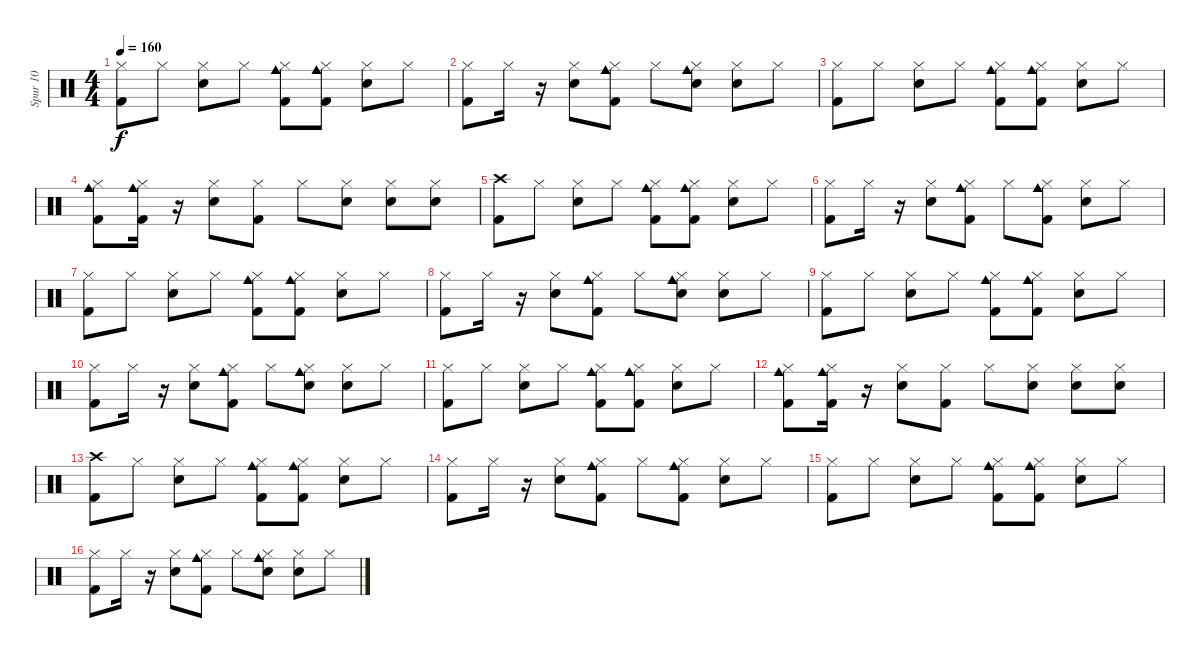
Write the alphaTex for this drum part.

\track ("Spur 10" "Spur 10") {instrument percussion}
\staff {score}
\articulation defaults
\ts (4 4)
\tempo 160
\clef neutral
\ks c
("Hi-Hat (closed)" "Kick (hit) 2").8{dy f} "Hi-Hat (closed)".8 ("Hi-Hat (closed)" "Snare (hit) 2").8 "Hi-Hat (closed)".8 ("Hi-Hat (closed)" "Cowbell medium (hit)" "Kick (hit) 2").8 ("Hi-Hat (closed)" "Cowbell medium (hit)" "Kick (hit) 2").8 ("Hi-Hat (closed)" "Snare (hit) 2").8 "Hi-Hat (closed)".8 |
("Hi-Hat (closed)" "Kick (hit) 2").8 "Hi-Hat (closed)".16 r.16 ("Hi-Hat (closed)" "Snare (hit) 2").8 ("Hi-Hat (closed)" "Kick (hit) 2" "Cowbell medium (hit)").8 "Hi-Hat (closed)".8 ("Hi-Hat (closed)" "Hand Clap (hit)" "Cowbell medium (hit)").8 ("Hi-Hat (closed)" "Snare (hit) 2").8 "Hi-Hat (closed)".8 |
("Hi-Hat (closed)" "Kick (hit) 2").8 "Hi-Hat (closed)".8 ("Hi-Hat (closed)" "Snare (hit) 2").8 "Hi-Hat (closed)".8 ("Hi-Hat (closed)" "Cowbell medium (hit)" "Kick (hit) 2").8 ("Hi-Hat (closed)" "Cowbell medium (hit)" "Kick (hit) 2").8 ("Hi-Hat (closed)" "Snare (hit) 2").8 "Hi-Hat (closed)".8 |
("Cowbell medium (hit)" "Hi-Hat (closed)" "Kick (hit) 2").8 ("Cowbell medium (hit)" "Kick (hit) 2" "Hi-Hat (closed)").16 r.16 ("Hi-Hat (closed)" "Snare (hit) 2").8 ("Hi-Hat (closed)" "Kick (hit) 2").8 "Hi-Hat (closed)".8 ("Hi-Hat (closed)" "Snare (hit) 2").8 ("Hi-Hat (closed)" "Snare (hit) 2").8 ("Snare (hit) 2" "Hi-Hat (closed)").8 |
("Crash high (hit)" "Kick (hit) 2").8 "Hi-Hat (closed)".8 ("Hi-Hat (closed)" "Snare (hit) 2").8 "Hi-Hat (closed)".8 ("Hi-Hat (closed)" "Cowbell medium (hit)" "Kick (hit) 2").8 ("Hi-Hat (closed)" "Cowbell medium (hit)" "Kick (hit) 2").8 ("Hi-Hat (closed)" "Snare (hit) 2").8 "Hi-Hat (closed)".8 |
("Hi-Hat (closed)" "Kick (hit) 2").8 "Hi-Hat (closed)".16 r.16 ("Hi-Hat (closed)" "Snare (hit) 2").8 ("Hi-Hat (closed)" "Kick (hit) 2" "Cowbell medium (hit)").8 "Hi-Hat (closed)".8 ("Hi-Hat (closed)" "Kick (hit) 2" "Cowbell medium (hit)").8 ("Hi-Hat (closed)" "Snare (hit) 2").8 "Hi-Hat (closed)".8 |
("Hi-Hat (closed)" "Kick (hit) 2").8 "Hi-Hat (closed)".8 ("Hi-Hat (closed)" "Snare (hit) 2").8 "Hi-Hat (closed)".8 ("Hi-Hat (closed)" "Cowbell medium (hit)" "Kick (hit) 2").8 ("Hi-Hat (closed)" "Cowbell medium (hit)" "Kick (hit) 2").8 ("Hi-Hat (closed)" "Snare (hit) 2").8 "Hi-Hat (closed)".8 |
("Hi-Hat (closed)" "Kick (hit) 2").8 "Hi-Hat (closed)".16 r.16 ("Hi-Hat (closed)" "Snare (hit) 2").8 ("Hi-Hat (closed)" "Kick (hit) 2" "Cowbell medium (hit)").8 "Hi-Hat (closed)".8 ("Hi-Hat (closed)" "Hand Clap (hit)" "Cowbell medium (hit)").8 ("Hi-Hat (closed)" "Snare (hit) 2").8 "Hi-Hat (closed)".8 |
("Hi-Hat (closed)" "Kick (hit) 2").8 "Hi-Hat (closed)".8 ("Hi-Hat (closed)" "Snare (hit) 2").8 "Hi-Hat (closed)".8 ("Hi-Hat (closed)" "Cowbell medium (hit)" "Kick (hit) 2").8 ("Hi-Hat (closed)" "Cowbell medium (hit)" "Kick (hit) 2").8 ("Hi-Hat (closed)" "Snare (hit) 2").8 "Hi-Hat (closed)".8 |
("Hi-Hat (closed)" "Kick (hit) 2").8 "Hi-Hat (closed)".16 r.16 ("Hi-Hat (closed)" "Snare (hit) 2").8 ("Hi-Hat (closed)" "Kick (hit) 2" "Cowbell medium (hit)").8 "Hi-Hat (closed)".8 ("Hi-Hat (closed)" "Hand Clap (hit)" "Cowbell medium (hit)").8 ("Hi-Hat (closed)" "Snare (hit) 2").8 "Hi-Hat (closed)".8 |
("Hi-Hat (closed)" "Kick (hit) 2").8 "Hi-Hat (closed)".8 ("Hi-Hat (closed)" "Snare (hit) 2").8 "Hi-Hat (closed)".8 ("Hi-Hat (closed)" "Cowbell medium (hit)" "Kick (hit) 2").8 ("Hi-Hat (closed)" "Cowbell medium (hit)" "Kick (hit) 2").8 ("Hi-Hat (closed)" "Snare (hit) 2").8 "Hi-Hat (closed)".8 |
("Cowbell medium (hit)" "Hi-Hat (closed)" "Kick (hit) 2").8 ("Cowbell medium (hit)" "Kick (hit) 2" "Hi-Hat (closed)").16 r.16 ("Hi-Hat (closed)" "Snare (hit) 2").8 ("Hi-Hat (closed)" "Kick (hit) 2").8 "Hi-Hat (closed)".8 ("Hi-Hat (closed)" "Snare (hit) 2").8 ("Hi-Hat (closed)" "Snare (hit) 2").8 ("Snare (hit) 2" "Hi-Hat (closed)").8 |
("Crash high (hit)" "Kick (hit) 2").8 "Hi-Hat (closed)".8 ("Hi-Hat (closed)" "Snare (hit) 2").8 "Hi-Hat (closed)".8 ("Hi-Hat (closed)" "Cowbell medium (hit)" "Kick (hit) 2").8 ("Hi-Hat (closed)" "Cowbell medium (hit)" "Kick (hit) 2").8 ("Hi-Hat (closed)" "Snare (hit) 2").8 "Hi-Hat (closed)".8 |
("Hi-Hat (closed)" "Kick (hit) 2").8 "Hi-Hat (closed)".16 r.16 ("Hi-Hat (closed)" "Snare (hit) 2").8 ("Hi-Hat (closed)" "Kick (hit) 2" "Cowbell medium (hit)").8 "Hi-Hat (closed)".8 ("Hi-Hat (closed)" "Kick (hit) 2" "Cowbell medium (hit)").8 ("Hi-Hat (closed)" "Snare (hit) 2").8 "Hi-Hat (closed)".8 |
("Hi-Hat (closed)" "Kick (hit) 2").8 "Hi-Hat (closed)".8 ("Hi-Hat (closed)" "Snare (hit) 2").8 "Hi-Hat (closed)".8 ("Hi-Hat (closed)" "Cowbell medium (hit)" "Kick (hit) 2").8 ("Hi-Hat (closed)" "Cowbell medium (hit)" "Kick (hit) 2").8 ("Hi-Hat (closed)" "Snare (hit) 2").8 "Hi-Hat (closed)".8 |
("Hi-Hat (closed)" "Kick (hit) 2").8 "Hi-Hat (closed)".16 r.16 ("Hi-Hat (closed)" "Snare (hit) 2").8 ("Hi-Hat (closed)" "Kick (hit) 2" "Cowbell medium (hit)").8 "Hi-Hat (closed)".8 ("Hi-Hat (closed)" "Hand Clap (hit)" "Cowbell medium (hit)").8 ("Hi-Hat (closed)" "Snare (hit) 2").8 "Hi-Hat (closed)".8
